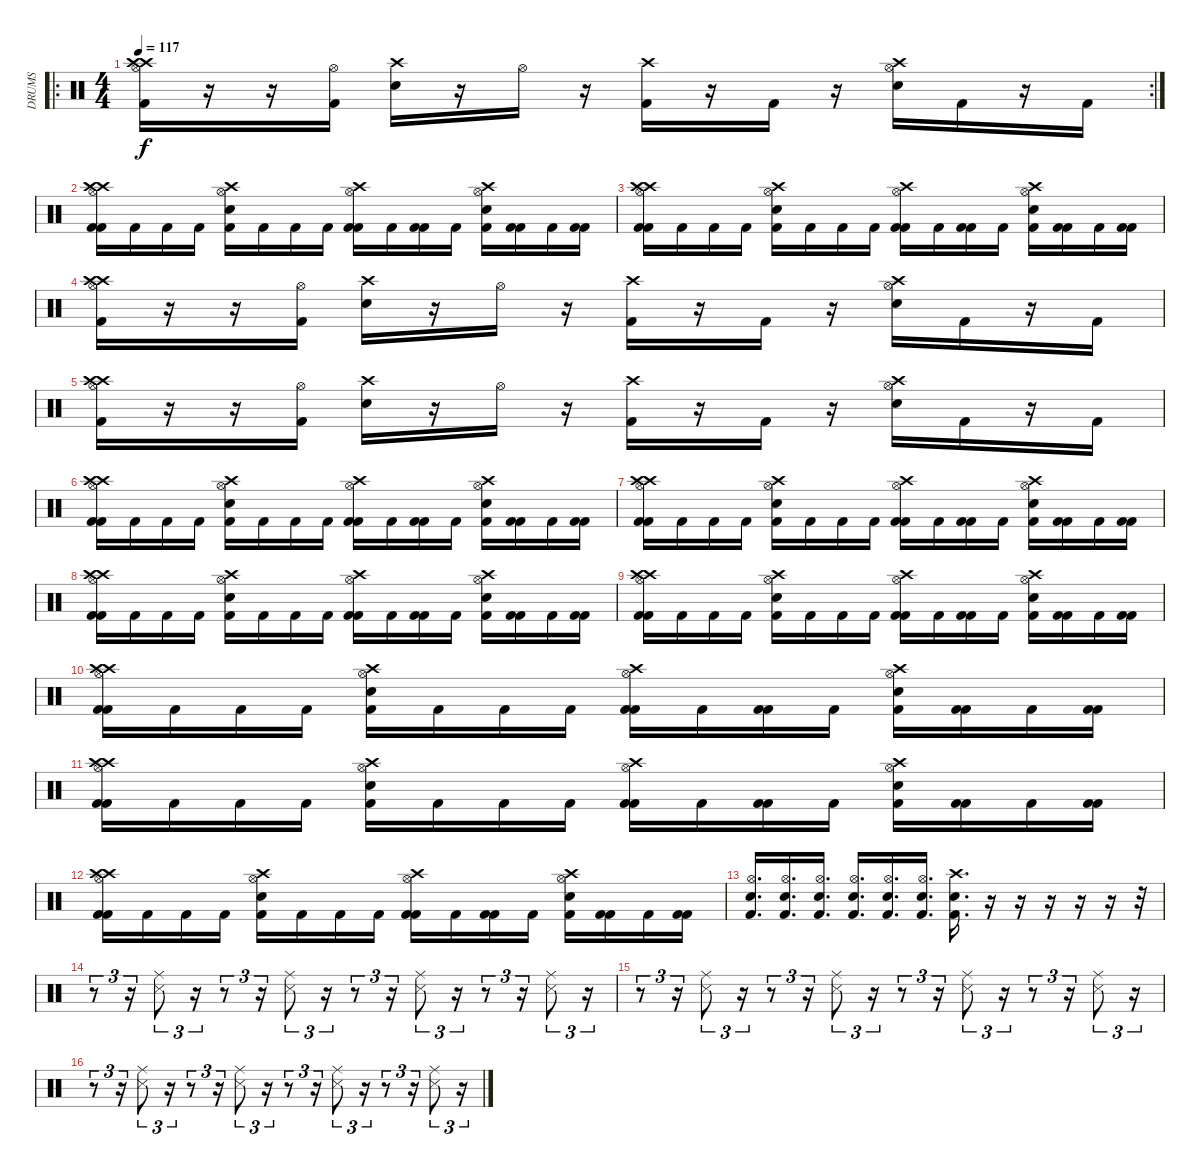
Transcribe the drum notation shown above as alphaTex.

\track ("DRUMS" "DRUMS") {instrument percussion}
\staff {score}
\articulation defaults
\ro
\rc 2
\ts (4 4)
\tempo 117
\clef neutral
\ks c
("Crash high (hit)" "Kick (hit) 2" "Hi-Hat (open)" "Crash high (hit)").16{dy f} r.16 r.16 ("Kick (hit) 2" "Hi-Hat (open)").16 ("Crash high (hit)" "Electric Snare (hit)").16 r.16 "Hi-Hat (open)".16 r.16 ("Crash high (hit)" "Kick (hit) 2").16 r.16 "Kick (hit) 2".16 r.16 ("Crash high (hit)" "Electric Snare (hit)" "Hi-Hat (open)").16 "Kick (hit) 2".16 r.16 "Kick (hit) 2".16 |
("Crash high (hit)" "Kick (hit) 2" "Hi-Hat (open)" "Crash high (hit)" "Kick (hit) 2").16 "Kick (hit) 2".16 "Kick (hit) 2".16 "Kick (hit) 2".16 ("Crash high (hit)" "Electric Snare (hit)" "Hi-Hat (open)" "Kick (hit) 2").16 "Kick (hit) 2".16 "Kick (hit) 2".16 "Kick (hit) 2".16 ("Crash high (hit)" "Kick (hit) 2" "Hi-Hat (open)" "Kick (hit) 2").16 "Kick (hit) 2".16 ("Kick (hit) 2" "Kick (hit) 2").16 "Kick (hit) 2".16 ("Crash high (hit)" "Electric Snare (hit)" "Hi-Hat (open)" "Kick (hit) 2").16 ("Kick (hit) 2" "Kick (hit) 2").16 "Kick (hit) 2".16 ("Kick (hit) 2" "Kick (hit) 2").16 |
("Crash high (hit)" "Kick (hit) 2" "Hi-Hat (open)" "Crash high (hit)" "Kick (hit) 2").16 "Kick (hit) 2".16 "Kick (hit) 2".16 "Kick (hit) 2".16 ("Crash high (hit)" "Electric Snare (hit)" "Hi-Hat (open)" "Kick (hit) 2").16 "Kick (hit) 2".16 "Kick (hit) 2".16 "Kick (hit) 2".16 ("Crash high (hit)" "Kick (hit) 2" "Hi-Hat (open)" "Kick (hit) 2").16 "Kick (hit) 2".16 ("Kick (hit) 2" "Kick (hit) 2").16 "Kick (hit) 2".16 ("Crash high (hit)" "Electric Snare (hit)" "Hi-Hat (open)" "Kick (hit) 2").16 ("Kick (hit) 2" "Kick (hit) 2").16 "Kick (hit) 2".16 ("Kick (hit) 2" "Kick (hit) 2").16 |
("Crash high (hit)" "Kick (hit) 2" "Hi-Hat (open)" "Crash high (hit)").16 r.16 r.16 ("Kick (hit) 2" "Hi-Hat (open)").16 ("Crash high (hit)" "Electric Snare (hit)").16 r.16 "Hi-Hat (open)".16 r.16 ("Crash high (hit)" "Kick (hit) 2").16 r.16 "Kick (hit) 2".16 r.16 ("Crash high (hit)" "Electric Snare (hit)" "Hi-Hat (open)").16 "Kick (hit) 2".16 r.16 "Kick (hit) 2".16 |
("Crash high (hit)" "Kick (hit) 2" "Hi-Hat (open)" "Crash high (hit)").16 r.16 r.16 ("Kick (hit) 2" "Hi-Hat (open)").16 ("Crash high (hit)" "Electric Snare (hit)").16 r.16 "Hi-Hat (open)".16 r.16 ("Crash high (hit)" "Kick (hit) 2").16 r.16 "Kick (hit) 2".16 r.16 ("Crash high (hit)" "Electric Snare (hit)" "Hi-Hat (open)").16 "Kick (hit) 2".16 r.16 "Kick (hit) 2".16 |
("Crash high (hit)" "Kick (hit) 2" "Hi-Hat (open)" "Crash high (hit)" "Kick (hit) 2").16 "Kick (hit) 2".16 "Kick (hit) 2".16 "Kick (hit) 2".16 ("Crash high (hit)" "Electric Snare (hit)" "Hi-Hat (open)" "Kick (hit) 2").16 "Kick (hit) 2".16 "Kick (hit) 2".16 "Kick (hit) 2".16 ("Crash high (hit)" "Kick (hit) 2" "Hi-Hat (open)" "Kick (hit) 2").16 "Kick (hit) 2".16 ("Kick (hit) 2" "Kick (hit) 2").16 "Kick (hit) 2".16 ("Crash high (hit)" "Electric Snare (hit)" "Hi-Hat (open)" "Kick (hit) 2").16 ("Kick (hit) 2" "Kick (hit) 2").16 "Kick (hit) 2".16 ("Kick (hit) 2" "Kick (hit) 2").16 |
("Crash high (hit)" "Kick (hit) 2" "Hi-Hat (open)" "Crash high (hit)" "Kick (hit) 2").16 "Kick (hit) 2".16 "Kick (hit) 2".16 "Kick (hit) 2".16 ("Crash high (hit)" "Electric Snare (hit)" "Hi-Hat (open)" "Kick (hit) 2").16 "Kick (hit) 2".16 "Kick (hit) 2".16 "Kick (hit) 2".16 ("Crash high (hit)" "Kick (hit) 2" "Hi-Hat (open)" "Kick (hit) 2").16 "Kick (hit) 2".16 ("Kick (hit) 2" "Kick (hit) 2").16 "Kick (hit) 2".16 ("Crash high (hit)" "Electric Snare (hit)" "Hi-Hat (open)" "Kick (hit) 2").16 ("Kick (hit) 2" "Kick (hit) 2").16 "Kick (hit) 2".16 ("Kick (hit) 2" "Kick (hit) 2").16 |
("Crash high (hit)" "Kick (hit) 2" "Hi-Hat (open)" "Crash high (hit)" "Kick (hit) 2").16 "Kick (hit) 2".16 "Kick (hit) 2".16 "Kick (hit) 2".16 ("Crash high (hit)" "Electric Snare (hit)" "Hi-Hat (open)" "Kick (hit) 2").16 "Kick (hit) 2".16 "Kick (hit) 2".16 "Kick (hit) 2".16 ("Crash high (hit)" "Kick (hit) 2" "Hi-Hat (open)" "Kick (hit) 2").16 "Kick (hit) 2".16 ("Kick (hit) 2" "Kick (hit) 2").16 "Kick (hit) 2".16 ("Crash high (hit)" "Electric Snare (hit)" "Hi-Hat (open)" "Kick (hit) 2").16 ("Kick (hit) 2" "Kick (hit) 2").16 "Kick (hit) 2".16 ("Kick (hit) 2" "Kick (hit) 2").16 |
("Crash high (hit)" "Kick (hit) 2" "Hi-Hat (open)" "Crash high (hit)" "Kick (hit) 2").16 "Kick (hit) 2".16 "Kick (hit) 2".16 "Kick (hit) 2".16 ("Crash high (hit)" "Electric Snare (hit)" "Hi-Hat (open)" "Kick (hit) 2").16 "Kick (hit) 2".16 "Kick (hit) 2".16 "Kick (hit) 2".16 ("Crash high (hit)" "Kick (hit) 2" "Hi-Hat (open)" "Kick (hit) 2").16 "Kick (hit) 2".16 ("Kick (hit) 2" "Kick (hit) 2").16 "Kick (hit) 2".16 ("Crash high (hit)" "Electric Snare (hit)" "Hi-Hat (open)" "Kick (hit) 2").16 ("Kick (hit) 2" "Kick (hit) 2").16 "Kick (hit) 2".16 ("Kick (hit) 2" "Kick (hit) 2").16 |
("Crash high (hit)" "Kick (hit) 2" "Hi-Hat (open)" "Crash high (hit)" "Kick (hit) 2").16 "Kick (hit) 2".16 "Kick (hit) 2".16 "Kick (hit) 2".16 ("Crash high (hit)" "Electric Snare (hit)" "Hi-Hat (open)" "Kick (hit) 2").16 "Kick (hit) 2".16 "Kick (hit) 2".16 "Kick (hit) 2".16 ("Crash high (hit)" "Kick (hit) 2" "Hi-Hat (open)" "Kick (hit) 2").16 "Kick (hit) 2".16 ("Kick (hit) 2" "Kick (hit) 2").16 "Kick (hit) 2".16 ("Crash high (hit)" "Electric Snare (hit)" "Hi-Hat (open)" "Kick (hit) 2").16 ("Kick (hit) 2" "Kick (hit) 2").16 "Kick (hit) 2".16 ("Kick (hit) 2" "Kick (hit) 2").16 |
("Crash high (hit)" "Kick (hit) 2" "Hi-Hat (open)" "Crash high (hit)" "Kick (hit) 2").16 "Kick (hit) 2".16 "Kick (hit) 2".16 "Kick (hit) 2".16 ("Crash high (hit)" "Electric Snare (hit)" "Hi-Hat (open)" "Kick (hit) 2").16 "Kick (hit) 2".16 "Kick (hit) 2".16 "Kick (hit) 2".16 ("Crash high (hit)" "Kick (hit) 2" "Hi-Hat (open)" "Kick (hit) 2").16 "Kick (hit) 2".16 ("Kick (hit) 2" "Kick (hit) 2").16 "Kick (hit) 2".16 ("Crash high (hit)" "Electric Snare (hit)" "Hi-Hat (open)" "Kick (hit) 2").16 ("Kick (hit) 2" "Kick (hit) 2").16 "Kick (hit) 2".16 ("Kick (hit) 2" "Kick (hit) 2").16 |
("Crash high (hit)" "Kick (hit) 2" "Hi-Hat (open)" "Crash high (hit)" "Kick (hit) 2").16 "Kick (hit) 2".16 "Kick (hit) 2".16 "Kick (hit) 2".16 ("Crash high (hit)" "Electric Snare (hit)" "Hi-Hat (open)" "Kick (hit) 2").16 "Kick (hit) 2".16 "Kick (hit) 2".16 "Kick (hit) 2".16 ("Crash high (hit)" "Kick (hit) 2" "Hi-Hat (open)" "Kick (hit) 2").16 "Kick (hit) 2".16 ("Kick (hit) 2" "Kick (hit) 2").16 "Kick (hit) 2".16 ("Crash high (hit)" "Electric Snare (hit)" "Hi-Hat (open)" "Kick (hit) 2").16 ("Kick (hit) 2" "Kick (hit) 2").16 "Kick (hit) 2".16 ("Kick (hit) 2" "Kick (hit) 2").16 |
("Hi-Hat (open)" "Kick (hit) 2" "Electric Snare (hit)").16{d} ("Hi-Hat (open)" "Kick (hit) 2" "Electric Snare (hit)").16{d} ("Hi-Hat (open)" "Kick (hit) 2" "Electric Snare (hit)").16{d} ("Hi-Hat (open)" "Kick (hit) 2" "Electric Snare (hit)").16{d} ("Hi-Hat (open)" "Kick (hit) 2" "Electric Snare (hit)").16{d} ("Hi-Hat (open)" "Kick (hit) 2" "Electric Snare (hit)").16{d} ("Crash high (hit)" "Kick (hit) 2" "Electric Snare (hit)").16{d} r.16 r.16 r.16 r.16 r.16 r.32 |
r.8{tu (3 2)} r.16{tu (3 2)} ("Ride (middle)" "Snare (side stick) 3").8{tu (3 2)} r.16{tu (3 2)} r.8{tu (3 2)} r.16{tu (3 2)} ("Ride (middle)" "Snare (side stick) 3").8{tu (3 2)} r.16{tu (3 2)} r.8{tu (3 2)} r.16{tu (3 2)} ("Ride (middle)" "Snare (side stick) 3").8{tu (3 2)} r.16{tu (3 2)} r.8{tu (3 2)} r.16{tu (3 2)} ("Ride (middle)" "Snare (side stick) 3").8{tu (3 2)} r.16{tu (3 2)} |
r.8{tu (3 2)} r.16{tu (3 2)} ("Ride (middle)" "Snare (side stick) 3").8{tu (3 2)} r.16{tu (3 2)} r.8{tu (3 2)} r.16{tu (3 2)} ("Ride (middle)" "Snare (side stick) 3").8{tu (3 2)} r.16{tu (3 2)} r.8{tu (3 2)} r.16{tu (3 2)} ("Ride (middle)" "Snare (side stick) 3").8{tu (3 2)} r.16{tu (3 2)} r.8{tu (3 2)} r.16{tu (3 2)} ("Ride (middle)" "Snare (side stick) 3").8{tu (3 2)} r.16{tu (3 2)} |
r.8{tu (3 2)} r.16{tu (3 2)} ("Ride (middle)" "Snare (side stick) 3").8{tu (3 2)} r.16{tu (3 2)} r.8{tu (3 2)} r.16{tu (3 2)} ("Ride (middle)" "Snare (side stick) 3").8{tu (3 2)} r.16{tu (3 2)} r.8{tu (3 2)} r.16{tu (3 2)} ("Ride (middle)" "Snare (side stick) 3").8{tu (3 2)} r.16{tu (3 2)} r.8{tu (3 2)} r.16{tu (3 2)} ("Ride (middle)" "Snare (side stick) 3").8{tu (3 2)} r.16{tu (3 2)}
